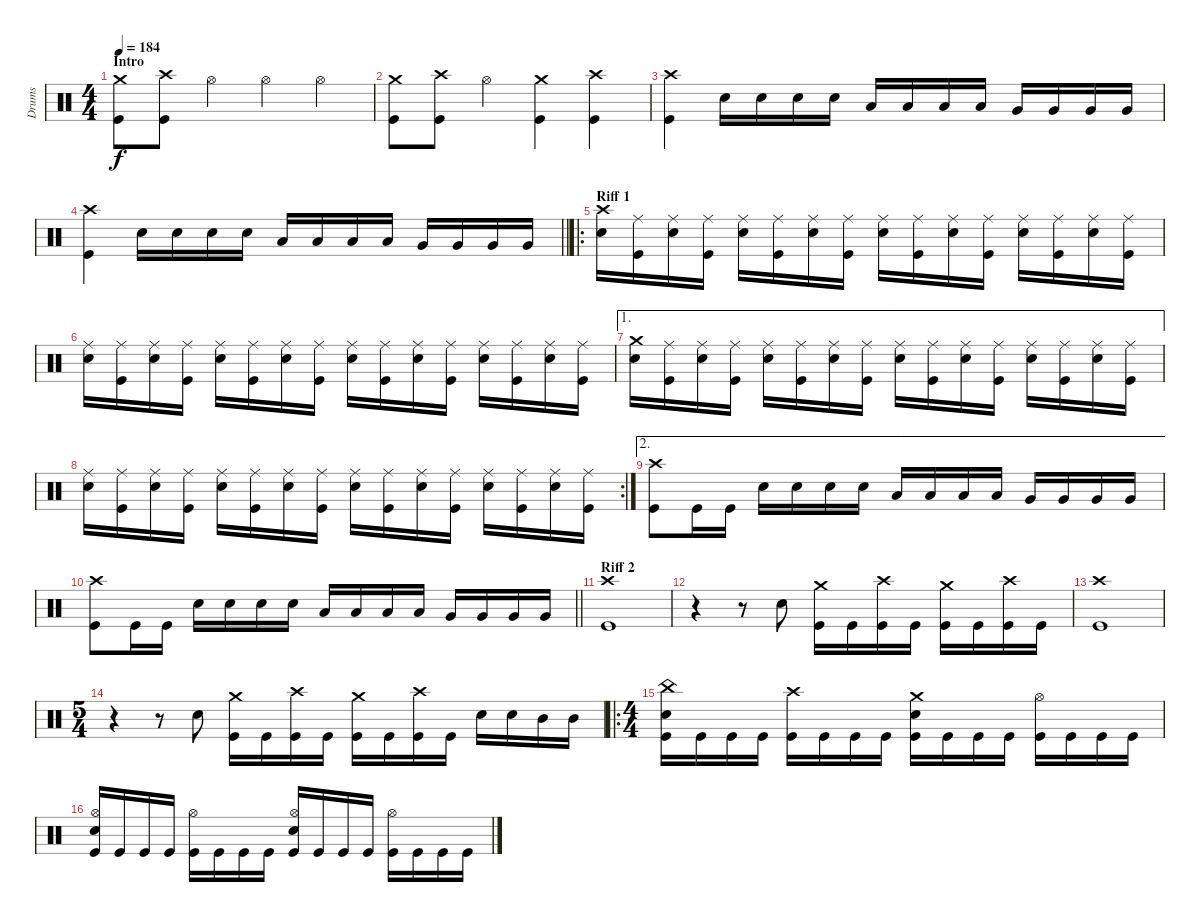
\track ("Drums" "Drums") {instrument percussion}
\staff {score}
\articulation defaults
\ts (4 4)
\section ("" "Intro")
\tempo 184
\clef neutral
\ks c
("Crash medium (hit)" "Kick (hit)").8{dy f} ("Crash high (hit)" "Kick (hit)").8 "Hi-Hat (open)".4 "Hi-Hat (open)".4 "Hi-Hat (open)".4 |
("Crash medium (hit)" "Kick (hit)").8 ("Crash high (hit)" "Kick (hit)").8 "Hi-Hat (open)".4 ("Crash medium (hit)" "Kick (hit)").4 ("Crash high (hit)" "Kick (hit)").4 |
("Crash high (hit)" "Kick (hit)").4 "Snare (hit) 2".16 "Snare (hit) 2".16 "Snare (hit) 2".16 "Snare (hit) 2".16 "Low Tom (hit)".16 "Low Tom (hit)".16 "Low Tom (hit)".16 "Low Tom (hit)".16 "Very Low Tom (hit)".16 "Very Low Tom (hit)".16 "Very Low Tom (hit)".16 "Very Low Tom (hit)".16 |
\barLineRight lightlight
("Crash high (hit)" "Kick (hit)").4 "Snare (hit) 2".16 "Snare (hit) 2".16 "Snare (hit) 2".16 "Snare (hit) 2".16 "Low Tom (hit)".16 "Low Tom (hit)".16 "Low Tom (hit)".16 "Low Tom (hit)".16 "Very Low Tom (hit)".16 "Very Low Tom (hit)".16 "Very Low Tom (hit)".16 "Very Low Tom (hit)".16 |
\ro
\section ("" "Riff 1")
("Crash high (hit)" "Snare (hit) 2").16 ("Ride (middle)" "Kick (hit)").16 ("Ride (middle)" "Snare (hit) 2").16 ("Ride (middle)" "Kick (hit)").16 ("Ride (middle)" "Snare (hit) 2").16 ("Ride (middle)" "Kick (hit)").16 ("Ride (middle)" "Snare (hit) 2").16 ("Ride (middle)" "Kick (hit)").16 ("Ride (middle)" "Snare (hit) 2").16 ("Ride (middle)" "Kick (hit)").16 ("Ride (middle)" "Snare (hit) 2").16 ("Ride (middle)" "Kick (hit)").16 ("Ride (middle)" "Snare (hit) 2").16 ("Ride (middle)" "Kick (hit)").16 ("Ride (middle)" "Snare (hit) 2").16 ("Ride (middle)" "Kick (hit)").16 |
("Ride (middle)" "Snare (hit) 2").16 ("Ride (middle)" "Kick (hit)").16 ("Ride (middle)" "Snare (hit) 2").16 ("Ride (middle)" "Kick (hit)").16 ("Ride (middle)" "Snare (hit) 2").16 ("Ride (middle)" "Kick (hit)").16 ("Ride (middle)" "Snare (hit) 2").16 ("Ride (middle)" "Kick (hit)").16 ("Ride (middle)" "Snare (hit) 2").16 ("Ride (middle)" "Kick (hit)").16 ("Ride (middle)" "Snare (hit) 2").16 ("Ride (middle)" "Kick (hit)").16 ("Ride (middle)" "Snare (hit) 2").16 ("Ride (middle)" "Kick (hit)").16 ("Ride (middle)" "Snare (hit) 2").16 ("Ride (middle)" "Kick (hit)").16 |
\ae 1
("Crash medium (hit)" "Snare (hit) 2").16 ("Ride (middle)" "Kick (hit)").16 ("Ride (middle)" "Snare (hit) 2").16 ("Ride (middle)" "Kick (hit)").16 ("Ride (middle)" "Snare (hit) 2").16 ("Ride (middle)" "Kick (hit)").16 ("Ride (middle)" "Snare (hit) 2").16 ("Ride (middle)" "Kick (hit)").16 ("Ride (middle)" "Snare (hit) 2").16 ("Ride (middle)" "Kick (hit)").16 ("Ride (middle)" "Snare (hit) 2").16 ("Ride (middle)" "Kick (hit)").16 ("Ride (middle)" "Snare (hit) 2").16 ("Ride (middle)" "Kick (hit)").16 ("Ride (middle)" "Snare (hit) 2").16 ("Ride (middle)" "Kick (hit)").16 |
\rc 2
("Ride (middle)" "Snare (hit) 2").16 ("Ride (middle)" "Kick (hit)").16 ("Ride (middle)" "Snare (hit) 2").16 ("Ride (middle)" "Kick (hit)").16 ("Ride (middle)" "Snare (hit) 2").16 ("Ride (middle)" "Kick (hit)").16 ("Ride (middle)" "Snare (hit) 2").16 ("Ride (middle)" "Kick (hit)").16 ("Ride (middle)" "Snare (hit) 2").16 ("Ride (middle)" "Kick (hit)").16 ("Ride (middle)" "Snare (hit) 2").16 ("Ride (middle)" "Kick (hit)").16 ("Ride (middle)" "Snare (hit) 2").16 ("Ride (middle)" "Kick (hit)").16 ("Ride (middle)" "Snare (hit) 2").16 ("Ride (middle)" "Kick (hit)").16 |
\ae 2
("Crash high (hit)" "Kick (hit)").8 "Kick (hit)".16 "Kick (hit)".16 "Snare (hit) 2".16 "Snare (hit) 2".16 "Snare (hit) 2".16 "Snare (hit) 2".16 "Low Tom (hit)".16 "Low Tom (hit)".16 "Low Tom (hit)".16 "Low Tom (hit)".16 "Very Low Tom (hit)".16 "Very Low Tom (hit)".16 "Very Low Tom (hit)".16 "Very Low Tom (hit)".16 |
\barLineRight lightlight
("Crash high (hit)" "Kick (hit)").8 "Kick (hit)".16 "Kick (hit)".16 "Snare (hit) 2".16 "Snare (hit) 2".16 "Snare (hit) 2".16 "Snare (hit) 2".16 "Low Tom (hit)".16 "Low Tom (hit)".16 "Low Tom (hit)".16 "Low Tom (hit)".16 "Very Low Tom (hit)".16 "Very Low Tom (hit)".16 "Very Low Tom (hit)".16 "Very Low Tom (hit)".16 |
\section ("" "Riff 2")
("Crash high (hit)" "Kick (hit)").1 |
r.4 r.8 "Snare (hit) 2".8 ("Crash medium (hit)" "Kick (hit)").16 "Kick (hit)".16 ("Crash high (hit)" "Kick (hit)").16 "Kick (hit)".16 ("Crash medium (hit)" "Kick (hit)").16 "Kick (hit)".16 ("Crash high (hit)" "Kick (hit)").16 "Kick (hit)".16 |
("Crash high (hit)" "Kick (hit)").1 |
\ts (5 4)
r.4 r.8 "Snare (hit) 2".8 ("Crash medium (hit)" "Kick (hit)").16 "Kick (hit)".16 ("Crash high (hit)" "Kick (hit)").16 "Kick (hit)".16 ("Crash medium (hit)" "Kick (hit)").16 "Kick (hit)".16 ("Crash high (hit)" "Kick (hit)").16 "Kick (hit)".16 "Snare (hit) 2".16 "Snare (hit) 2".16 "Mid Tom (hit)".16 "Mid Tom (hit)".16 |
\ro
\ts (4 4)
("China (hit)" "Snare (hit) 2" "Kick (hit)").16 "Kick (hit)".16 "Kick (hit)".16 "Kick (hit)".16 ("Crash high (hit)" "Kick (hit)").16 "Kick (hit)".16 "Kick (hit)".16 "Kick (hit)".16 ("Crash medium (hit)" "Snare (hit) 2" "Kick (hit)").16 "Kick (hit)".16 "Kick (hit)".16 "Kick (hit)".16 ("Hi-Hat (open)" "Kick (hit)").16 "Kick (hit)".16 "Kick (hit)".16 "Kick (hit)".16 |
("Hi-Hat (open)" "Snare (hit) 2" "Kick (hit)").16 "Kick (hit)".16 "Kick (hit)".16 "Kick (hit)".16 ("Hi-Hat (open)" "Kick (hit)").16 "Kick (hit)".16 "Kick (hit)".16 "Kick (hit)".16 ("Hi-Hat (open)" "Snare (hit) 2" "Kick (hit)").16 "Kick (hit)".16 "Kick (hit)".16 "Kick (hit)".16 ("Hi-Hat (open)" "Kick (hit)").16 "Kick (hit)".16 "Kick (hit)".16 "Kick (hit)".16
